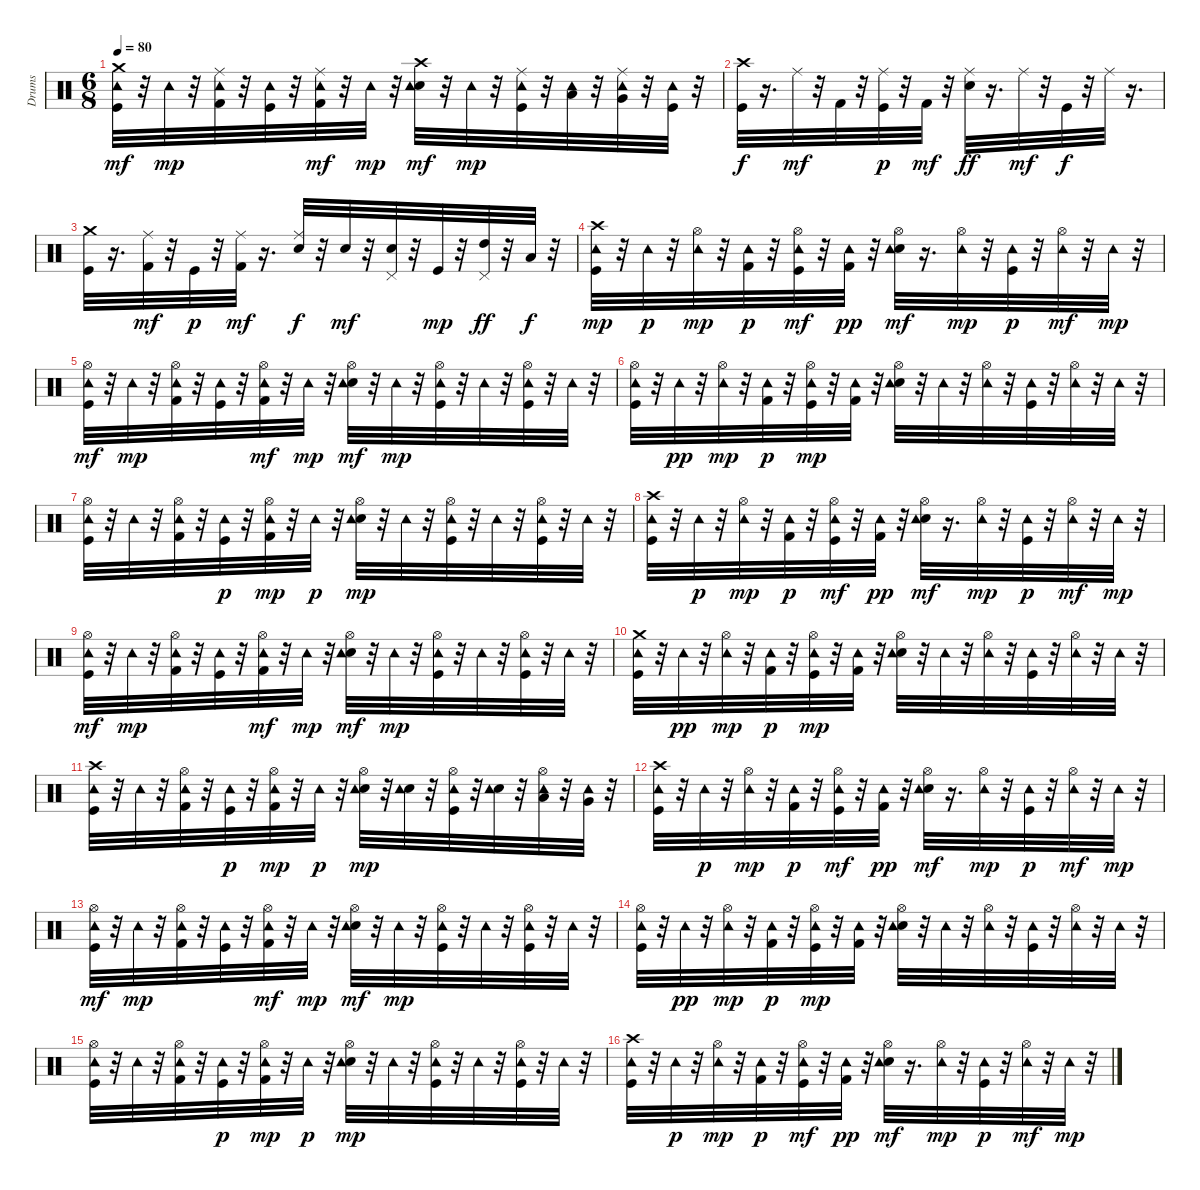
\track ("Drums" "Drums") {instrument percussion}
\staff {score}
\articulation defaults
\ts (6 8)
\tempo 80
\clef neutral
\ks c
("Kick (hit)" "Tambourine (hit)" "Crash medium (hit)").32{dy mf} r.32 "Tambourine (hit)".32{dy mp} r.32 ("Kick (hit) 2" "Ride (middle)" "Tambourine (hit)").32 r.32 ("Kick (hit)" "Tambourine (hit)").32 r.32 ("Kick (hit) 2" "Ride (middle)" "Tambourine (hit)").32{dy mf} r.32 "Tambourine (hit)".32{dy mp} r.32 ("Electric Snare (hit)" "Crash high (hit)" "Tambourine (hit)").32{dy mf} r.32 "Tambourine (hit)".32{dy mp} r.32 ("Kick (hit)" "Ride (middle)" "Tambourine (hit)").32 r.32 ("Low Tom (hit)" "Tambourine (hit)").32 r.32 ("Very Low Tom (hit)" "Ride (middle)" "Tambourine (hit)").32 r.32 ("Kick (hit)" "Tambourine (hit)").32 r.32 |
("Kick (hit)" "Crash high (hit)").32{dy f} r.16{d} "Ride (middle)".32{dy mf} r.32 "Kick (hit) 2".32 r.32 ("Kick (hit)" "Ride (middle)").32{dy p} r.32 "Kick (hit) 2".32{dy mf} r.32 ("Electric Snare (hit)" "Ride (middle)").32{dy ff} r.16{d} "Ride (middle)".32{dy mf} r.32 "Kick (hit)".32{dy f} r.32 "Ride (middle)".32 r.16{d} |
("Kick (hit)" "Crash medium (hit)").32 r.16{d} ("Kick (hit) 2" "Ride (middle)").32{dy mf} r.32 "Kick (hit)".32{dy p} r.32 ("Kick (hit) 2" "Ride (middle)").32{dy mf} r.16{d} ("Electric Snare (hit)" "Ride (middle)").32{dy f} r.32 "Electric Snare (hit)".32{dy mf} r.32 ("Electric Snare (hit)" "Pedal Hi-Hat (hit)").32 r.32 "Kick (hit)".32{dy mp} r.32 ("Pedal Hi-Hat (hit)" "High Tom (hit)").32{dy ff} r.32 "Low Tom (hit)".32{dy f} r.32 |
("Kick (hit)" "Crash high (hit)" "Tambourine (hit)").32{dy mp} r.32 "Tambourine (hit)".32{dy p} r.32 ("Hi-Hat (open)" "Tambourine (hit)").32{dy mp} r.32 ("Kick (hit) 2" "Tambourine (hit)").32{dy p} r.32 ("Kick (hit)" "Hi-Hat (open)" "Tambourine (hit)").32{dy mf} r.32 ("Kick (hit) 2" "Tambourine (hit)").32{dy pp} r.32 ("Electric Snare (hit)" "Hi-Hat (open)" "Tambourine (hit)").32{dy mf} r.16{d} ("Hi-Hat (open)" "Tambourine (hit)").32{dy mp} r.32 ("Kick (hit)" "Tambourine (hit)").32{dy p} r.32 ("Hi-Hat (open)" "Tambourine (hit)").32{dy mf} r.32 "Tambourine (hit)".32{dy mp} r.32 |
("Kick (hit)" "Hi-Hat (open)" "Tambourine (hit)").32{dy mf} r.32 "Tambourine (hit)".32{dy mp} r.32 ("Kick (hit) 2" "Hi-Hat (open)" "Tambourine (hit)").32 r.32 ("Kick (hit)" "Tambourine (hit)").32 r.32 ("Kick (hit) 2" "Hi-Hat (open)" "Tambourine (hit)").32{dy mf} r.32 "Tambourine (hit)".32{dy mp} r.32 ("Electric Snare (hit)" "Hi-Hat (open)" "Tambourine (hit)").32{dy mf} r.32 "Tambourine (hit)".32{dy mp} r.32 ("Kick (hit)" "Hi-Hat (open)" "Tambourine (hit)").32 r.32 "Tambourine (hit)".32 r.32 ("Kick (hit)" "Hi-Hat (open)" "Tambourine (hit)").32 r.32 "Tambourine (hit)".32 r.32 |
("Kick (hit)" "Hi-Hat (open)" "Tambourine (hit)").32 r.32 "Tambourine (hit)".32{dy pp} r.32 ("Hi-Hat (open)" "Tambourine (hit)").32{dy mp} r.32 ("Kick (hit) 2" "Tambourine (hit)").32{dy p} r.32 ("Kick (hit)" "Hi-Hat (open)" "Tambourine (hit)").32{dy mp} r.32 ("Kick (hit) 2" "Tambourine (hit)").32 r.32 ("Electric Snare (hit)" "Hi-Hat (open)" "Tambourine (hit)").32 r.32 "Tambourine (hit)".32 r.32 ("Hi-Hat (open)" "Tambourine (hit)").32 r.32 ("Kick (hit)" "Tambourine (hit)").32 r.32 ("Hi-Hat (open)" "Tambourine (hit)").32 r.32 "Tambourine (hit)".32 r.32 |
("Kick (hit)" "Hi-Hat (open)" "Tambourine (hit)").32 r.32 "Tambourine (hit)".32 r.32 ("Kick (hit) 2" "Hi-Hat (open)" "Tambourine (hit)").32 r.32 ("Kick (hit)" "Tambourine (hit)").32{dy p} r.32 ("Kick (hit) 2" "Hi-Hat (open)" "Tambourine (hit)").32{dy mp} r.32 "Tambourine (hit)".32{dy p} r.32 ("Electric Snare (hit)" "Hi-Hat (open)" "Tambourine (hit)").32{dy mp} r.32 "Tambourine (hit)".32 r.32 ("Kick (hit)" "Hi-Hat (open)" "Tambourine (hit)").32 r.32 "Tambourine (hit)".32 r.32 ("Kick (hit)" "Hi-Hat (open)" "Tambourine (hit)").32 r.32 "Tambourine (hit)".32 r.32 |
("Kick (hit)" "Crash high (hit)" "Tambourine (hit)").32 r.32 "Tambourine (hit)".32{dy p} r.32 ("Hi-Hat (open)" "Tambourine (hit)").32{dy mp} r.32 ("Kick (hit) 2" "Tambourine (hit)").32{dy p} r.32 ("Kick (hit)" "Hi-Hat (open)" "Tambourine (hit)").32{dy mf} r.32 ("Kick (hit) 2" "Tambourine (hit)").32{dy pp} r.32 ("Electric Snare (hit)" "Hi-Hat (open)" "Tambourine (hit)").32{dy mf} r.16{d} ("Hi-Hat (open)" "Tambourine (hit)").32{dy mp} r.32 ("Kick (hit)" "Tambourine (hit)").32{dy p} r.32 ("Hi-Hat (open)" "Tambourine (hit)").32{dy mf} r.32 "Tambourine (hit)".32{dy mp} r.32 |
("Kick (hit)" "Hi-Hat (open)" "Tambourine (hit)").32{dy mf} r.32 "Tambourine (hit)".32{dy mp} r.32 ("Kick (hit) 2" "Hi-Hat (open)" "Tambourine (hit)").32 r.32 ("Kick (hit)" "Tambourine (hit)").32 r.32 ("Kick (hit) 2" "Hi-Hat (open)" "Tambourine (hit)").32{dy mf} r.32 "Tambourine (hit)".32{dy mp} r.32 ("Electric Snare (hit)" "Hi-Hat (open)" "Tambourine (hit)").32{dy mf} r.32 "Tambourine (hit)".32{dy mp} r.32 ("Kick (hit)" "Hi-Hat (open)" "Tambourine (hit)").32 r.32 "Tambourine (hit)".32 r.32 ("Kick (hit)" "Hi-Hat (open)" "Tambourine (hit)").32 r.32 "Tambourine (hit)".32 r.32 |
("Kick (hit)" "Tambourine (hit)" "Crash medium (hit)").32 r.32 "Tambourine (hit)".32{dy pp} r.32 ("Hi-Hat (open)" "Tambourine (hit)").32{dy mp} r.32 ("Kick (hit) 2" "Tambourine (hit)").32{dy p} r.32 ("Kick (hit)" "Hi-Hat (open)" "Tambourine (hit)").32{dy mp} r.32 ("Kick (hit) 2" "Tambourine (hit)").32 r.32 ("Electric Snare (hit)" "Hi-Hat (open)" "Tambourine (hit)").32 r.32 "Tambourine (hit)".32 r.32 ("Hi-Hat (open)" "Tambourine (hit)").32 r.32 ("Kick (hit)" "Tambourine (hit)").32 r.32 ("Hi-Hat (open)" "Tambourine (hit)").32 r.32 "Tambourine (hit)".32 r.32 |
("Kick (hit)" "Crash high (hit)" "Tambourine (hit)").32 r.32 "Tambourine (hit)".32 r.32 ("Kick (hit) 2" "Hi-Hat (open)" "Tambourine (hit)").32 r.32 ("Kick (hit)" "Tambourine (hit)").32{dy p} r.32 ("Kick (hit) 2" "Hi-Hat (open)" "Tambourine (hit)").32{dy mp} r.32 "Tambourine (hit)".32{dy p} r.32 ("Electric Snare (hit)" "Hi-Hat (open)" "Tambourine (hit)").32{dy mp} r.32 ("Electric Snare (hit)" "Tambourine (hit)").32 r.32 ("Kick (hit)" "Hi-Hat (open)" "Tambourine (hit)").32 r.32 ("Electric Snare (hit)" "Tambourine (hit)").32 r.32 ("Low Tom (hit)" "Hi-Hat (open)" "Tambourine (hit)").32 r.32 ("Very Low Tom (hit)" "Tambourine (hit)").32 r.32 |
("Kick (hit)" "Crash high (hit)" "Tambourine (hit)").32 r.32 "Tambourine (hit)".32{dy p} r.32 ("Hi-Hat (open)" "Tambourine (hit)").32{dy mp} r.32 ("Kick (hit) 2" "Tambourine (hit)").32{dy p} r.32 ("Kick (hit)" "Hi-Hat (open)" "Tambourine (hit)").32{dy mf} r.32 ("Kick (hit) 2" "Tambourine (hit)").32{dy pp} r.32 ("Electric Snare (hit)" "Hi-Hat (open)" "Tambourine (hit)").32{dy mf} r.16{d} ("Hi-Hat (open)" "Tambourine (hit)").32{dy mp} r.32 ("Kick (hit)" "Tambourine (hit)").32{dy p} r.32 ("Hi-Hat (open)" "Tambourine (hit)").32{dy mf} r.32 "Tambourine (hit)".32{dy mp} r.32 |
("Kick (hit)" "Hi-Hat (open)" "Tambourine (hit)").32{dy mf} r.32 "Tambourine (hit)".32{dy mp} r.32 ("Kick (hit) 2" "Hi-Hat (open)" "Tambourine (hit)").32 r.32 ("Kick (hit)" "Tambourine (hit)").32 r.32 ("Kick (hit) 2" "Hi-Hat (open)" "Tambourine (hit)").32{dy mf} r.32 "Tambourine (hit)".32{dy mp} r.32 ("Electric Snare (hit)" "Hi-Hat (open)" "Tambourine (hit)").32{dy mf} r.32 "Tambourine (hit)".32{dy mp} r.32 ("Kick (hit)" "Hi-Hat (open)" "Tambourine (hit)").32 r.32 "Tambourine (hit)".32 r.32 ("Kick (hit)" "Hi-Hat (open)" "Tambourine (hit)").32 r.32 "Tambourine (hit)".32 r.32 |
("Kick (hit)" "Hi-Hat (open)" "Tambourine (hit)").32 r.32 "Tambourine (hit)".32{dy pp} r.32 ("Hi-Hat (open)" "Tambourine (hit)").32{dy mp} r.32 ("Kick (hit) 2" "Tambourine (hit)").32{dy p} r.32 ("Kick (hit)" "Hi-Hat (open)" "Tambourine (hit)").32{dy mp} r.32 ("Kick (hit) 2" "Tambourine (hit)").32 r.32 ("Electric Snare (hit)" "Hi-Hat (open)" "Tambourine (hit)").32 r.32 "Tambourine (hit)".32 r.32 ("Hi-Hat (open)" "Tambourine (hit)").32 r.32 ("Kick (hit)" "Tambourine (hit)").32 r.32 ("Hi-Hat (open)" "Tambourine (hit)").32 r.32 "Tambourine (hit)".32 r.32 |
("Kick (hit)" "Hi-Hat (open)" "Tambourine (hit)").32 r.32 "Tambourine (hit)".32 r.32 ("Kick (hit) 2" "Hi-Hat (open)" "Tambourine (hit)").32 r.32 ("Kick (hit)" "Tambourine (hit)").32{dy p} r.32 ("Kick (hit) 2" "Hi-Hat (open)" "Tambourine (hit)").32{dy mp} r.32 "Tambourine (hit)".32{dy p} r.32 ("Electric Snare (hit)" "Hi-Hat (open)" "Tambourine (hit)").32{dy mp} r.32 "Tambourine (hit)".32 r.32 ("Kick (hit)" "Hi-Hat (open)" "Tambourine (hit)").32 r.32 "Tambourine (hit)".32 r.32 ("Kick (hit)" "Hi-Hat (open)" "Tambourine (hit)").32 r.32 "Tambourine (hit)".32 r.32 |
("Kick (hit)" "Crash high (hit)" "Tambourine (hit)").32 r.32 "Tambourine (hit)".32{dy p} r.32 ("Hi-Hat (open)" "Tambourine (hit)").32{dy mp} r.32 ("Kick (hit) 2" "Tambourine (hit)").32{dy p} r.32 ("Kick (hit)" "Hi-Hat (open)" "Tambourine (hit)").32{dy mf} r.32 ("Kick (hit) 2" "Tambourine (hit)").32{dy pp} r.32 ("Electric Snare (hit)" "Hi-Hat (open)" "Tambourine (hit)").32{dy mf} r.16{d} ("Hi-Hat (open)" "Tambourine (hit)").32{dy mp} r.32 ("Kick (hit)" "Tambourine (hit)").32{dy p} r.32 ("Hi-Hat (open)" "Tambourine (hit)").32{dy mf} r.32 "Tambourine (hit)".32{dy mp} r.32
